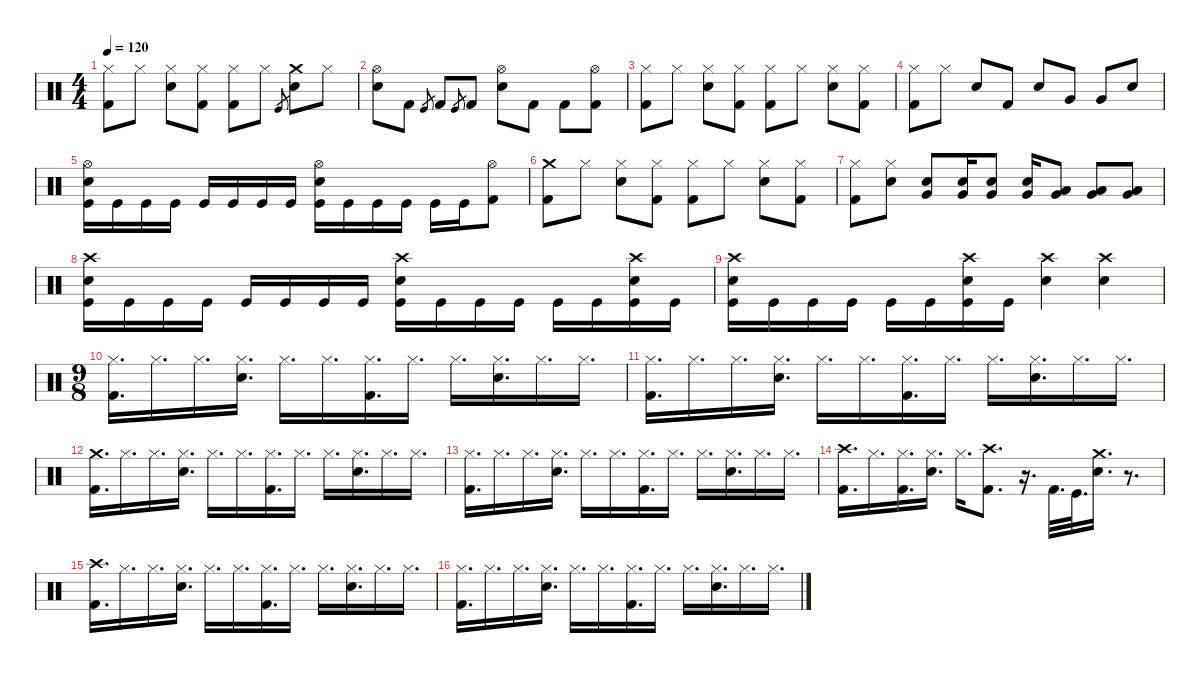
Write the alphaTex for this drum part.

\defaultSystemsLayout 4
\hideDynamics
\bracketExtendMode nobrackets
\singleTrackTrackNamePolicy hidden
\multiTrackTrackNamePolicy hidden
\otherSystemsTrackNameOrientation horizontal
\track ("Ulrich" "drm.") {instrument percussion}
\staff {score}
\articulation defaults
\ts (4 4)
\tempo 120
\clef neutral
\ks c
("Hi-Hat (closed)" "Kick (hit) 2").8{dy f beam Down} "Hi-Hat (closed)".8{beam Down} ("Hi-Hat (closed)" "Snare (hit) 2").8{beam Down} ("Hi-Hat (closed)" "Kick (hit) 2").8{beam Down} ("Hi-Hat (closed)" "Kick (hit) 2").8{beam Down} "Hi-Hat (closed)".8{beam Down} "Kick (hit)".8{gr dy ff beam Up} ("Crash medium (hit)" "Snare (hit) 2").8{dy f beam Down} "Hi-Hat (closed)".8{beam Down} |
("Hi-Hat (open)" "Snare (hit) 2").8{beam Down} "Kick (hit) 2".8{beam Down} "Kick (hit)".8{gr dy ff beam Up} "Kick (hit) 2".8{dy f beam Up} "Kick (hit)".8{gr dy ff beam Up} "Kick (hit) 2".8{dy f beam Up} ("Hi-Hat (open)" "Snare (hit) 2").8{beam Down} "Kick (hit) 2".8{beam Down} "Kick (hit) 2".8{beam Down} ("Hi-Hat (open)" "Kick (hit) 2").8{beam Down} |
("Hi-Hat (closed)" "Kick (hit) 2").8{beam Down} "Hi-Hat (closed)".8{beam Down} ("Hi-Hat (closed)" "Snare (hit) 2").8{beam Down} ("Hi-Hat (closed)" "Kick (hit) 2").8{beam Down} ("Hi-Hat (closed)" "Kick (hit) 2").8{beam Down} "Hi-Hat (closed)".8{beam Down} ("Hi-Hat (closed)" "Snare (hit) 2").8{beam Down} ("Hi-Hat (closed)" "Kick (hit) 2").8{beam Down} |
("Hi-Hat (closed)" "Kick (hit) 2").8{beam Down} "Hi-Hat (closed)".8{beam Down} "Snare (hit) 2".8{beam Up} "Kick (hit) 2".8{beam Up} "Snare (hit) 2".8{beam Up} "Very Low Tom (hit)".8{dy fff beam Up} "Very Low Tom (hit)".8{beam Up} "Snare (hit) 2".8{dy f beam Up} |
("Hi-Hat (open)" "Kick (hit)" "Snare (hit) 2").16{beam Down} "Kick (hit)".16{dy fff beam Down} "Kick (hit)".16{beam Down} "Kick (hit)".16{beam Down} "Kick (hit)".16{beam Up} "Kick (hit)".16{beam Up} "Kick (hit)".16{beam Up} "Kick (hit)".16{beam Up} ("Hi-Hat (open)" "Kick (hit)" "Snare (hit) 2").16{dy f beam Down} "Kick (hit)".16{dy fff beam Down} "Kick (hit)".16{beam Down} "Kick (hit)".16{beam Down} "Kick (hit)".16{beam Down} "Kick (hit)".16{beam Down} ("Hi-Hat (open)" "Kick (hit) 2").8{dy f beam Down} |
("Crash medium (hit)" "Kick (hit) 2").8{beam Down} "Hi-Hat (closed)".8{beam Down} ("Hi-Hat (closed)" "Snare (hit) 2").8{beam Down} ("Hi-Hat (closed)" "Kick (hit) 2").8{beam Down} ("Hi-Hat (closed)" "Kick (hit) 2").8{beam Down} "Hi-Hat (closed)".8{beam Down} ("Hi-Hat (closed)" "Snare (hit) 2").8{beam Down} ("Hi-Hat (closed)" "Kick (hit) 2").8{beam Down} |
("Hi-Hat (closed)" "Kick (hit) 2").8{beam Down} ("Hi-Hat (closed)" "Snare (hit) 2").8{beam Down} ("Snare (hit) 2" "Very Low Tom (hit)").8{beam Up} ("Snare (hit) 2" "Very Low Tom (hit)").16{beam Up} ("Snare (hit) 2" "Very Low Tom (hit)").8{beam Up} ("Snare (hit) 2" "Very Low Tom (hit)").16{beam Up} ("Low Tom (hit)" "Very Low Tom (hit)").8{dy fff beam Up} ("Low Tom (hit)" "Very Low Tom (hit)").8{beam Up} ("Low Tom (hit)" "Very Low Tom (hit)").8{beam Up} |
("Crash high (hit)" "Kick (hit)" "Snare (hit) 2").16{dy f beam Down} "Kick (hit)".16{dy fff beam Down} "Kick (hit)".16{beam Down} "Kick (hit)".16{beam Down} "Kick (hit)".16{beam Up} "Kick (hit)".16{beam Up} "Kick (hit)".16{beam Up} "Kick (hit)".16{beam Up} ("Crash high (hit)" "Kick (hit)" "Snare (hit) 2").16{dy f beam Down} "Kick (hit)".16{dy fff beam Down} "Kick (hit)".16{beam Down} "Kick (hit)".16{beam Down} "Kick (hit)".16{beam Down} "Kick (hit)".16{beam Down} ("Crash high (hit)" "Kick (hit)" "Snare (hit) 2").16{dy f beam Down} "Kick (hit)".16{dy fff beam Down} |
("Crash high (hit)" "Kick (hit)" "Snare (hit) 2").16{dy f beam Down} "Kick (hit)".16{dy fff beam Down} "Kick (hit)".16{beam Down} "Kick (hit)".16{beam Down} "Kick (hit)".16{beam Down} "Kick (hit)".16{beam Down} ("Crash high (hit)" "Kick (hit)" "Snare (hit) 2").16{dy f beam Down} "Kick (hit)".16{dy fff beam Down} ("Crash high (hit)" "Snare (hit) 2").4{dy f beam Down} ("Crash high (hit)" "Snare (hit) 2").4{beam Down} |
\ts (9 8)
("Hi-Hat (closed)" "Kick (hit) 2").16{d beam Down} "Hi-Hat (closed)".16{d beam Down} "Hi-Hat (closed)".16{d beam Down} ("Hi-Hat (closed)" "Snare (hit) 2").16{d beam Down} "Hi-Hat (closed)".16{d beam Down} "Hi-Hat (closed)".16{d beam Down} ("Hi-Hat (closed)" "Kick (hit) 2").16{d beam Down} "Hi-Hat (closed)".16{d beam Down} "Hi-Hat (closed)".16{d beam Down} ("Hi-Hat (closed)" "Snare (hit) 2").16{d beam Down} "Hi-Hat (closed)".16{d beam Down} "Hi-Hat (closed)".16{d beam Down} |
("Hi-Hat (closed)" "Kick (hit) 2").16{d beam Down} "Hi-Hat (closed)".16{d beam Down} "Hi-Hat (closed)".16{d beam Down} ("Hi-Hat (closed)" "Snare (hit) 2").16{d beam Down} "Hi-Hat (closed)".16{d beam Down} "Hi-Hat (closed)".16{d beam Down} ("Hi-Hat (closed)" "Kick (hit) 2").16{d beam Down} "Hi-Hat (closed)".16{d beam Down} "Hi-Hat (closed)".16{d beam Down} ("Hi-Hat (closed)" "Snare (hit) 2").16{d beam Down} "Hi-Hat (closed)".16{d beam Down} "Hi-Hat (closed)".16{d beam Down} |
("Crash medium (hit)" "Kick (hit) 2").16{d beam Down} "Hi-Hat (closed)".16{d beam Down} "Hi-Hat (closed)".16{d beam Down} ("Hi-Hat (closed)" "Snare (hit) 2").16{d beam Down} "Hi-Hat (closed)".16{d beam Down} "Hi-Hat (closed)".16{d beam Down} ("Hi-Hat (closed)" "Kick (hit) 2").16{d beam Down} "Hi-Hat (closed)".16{d beam Down} "Hi-Hat (closed)".16{d beam Down} ("Hi-Hat (closed)" "Snare (hit) 2").16{d beam Down} "Hi-Hat (closed)".16{d beam Down} "Hi-Hat (closed)".16{d beam Down} |
("Hi-Hat (closed)" "Kick (hit) 2").16{d beam Down} "Hi-Hat (closed)".16{d beam Down} "Hi-Hat (closed)".16{d beam Down} ("Hi-Hat (closed)" "Snare (hit) 2").16{d beam Down} "Hi-Hat (closed)".16{d beam Down} "Hi-Hat (closed)".16{d beam Down} ("Hi-Hat (closed)" "Kick (hit) 2").16{d beam Down} "Hi-Hat (closed)".16{d beam Down} "Hi-Hat (closed)".16{d beam Down} ("Hi-Hat (closed)" "Snare (hit) 2").16{d beam Down} "Hi-Hat (closed)".16{d beam Down} "Hi-Hat (closed)".16{d beam Down} |
("Crash high (hit)" "Kick (hit) 2").16{d beam Down} "Hi-Hat (closed)".16{d beam Down} ("Hi-Hat (closed)" "Kick (hit) 2").16{d beam Down} ("Hi-Hat (closed)" "Snare (hit) 2").16{d beam Down} "Hi-Hat (closed)".16{d beam Down} ("Crash high (hit)" "Kick (hit) 2").8{d beam Down} r.16{d beam Down} "Kick (hit) 2".32{d beam Down} "Kick (hit)".32{d beam Down} ("Crash medium (hit)" "Snare (hit) 2").16{d beam Down} r.8{d beam Down} |
("Crash high (hit)" "Kick (hit) 2").16{d beam Down} "Hi-Hat (closed)".16{d beam Down} "Hi-Hat (closed)".16{d beam Down} ("Hi-Hat (closed)" "Snare (hit) 2").16{d beam Down} "Hi-Hat (closed)".16{d beam Down} "Hi-Hat (closed)".16{d beam Down} ("Hi-Hat (closed)" "Kick (hit) 2").16{d beam Down} "Hi-Hat (closed)".16{d beam Down} "Hi-Hat (closed)".16{d beam Down} ("Hi-Hat (closed)" "Snare (hit) 2").16{d beam Down} "Hi-Hat (closed)".16{d beam Down} "Hi-Hat (closed)".16{d beam Down} |
("Hi-Hat (closed)" "Kick (hit) 2").16{d beam Down} "Hi-Hat (closed)".16{d beam Down} "Hi-Hat (closed)".16{d beam Down} ("Hi-Hat (closed)" "Snare (hit) 2").16{d beam Down} "Hi-Hat (closed)".16{d beam Down} "Hi-Hat (closed)".16{d beam Down} ("Hi-Hat (closed)" "Kick (hit) 2").16{d beam Down} "Hi-Hat (closed)".16{d beam Down} "Hi-Hat (closed)".16{d beam Down} ("Hi-Hat (closed)" "Snare (hit) 2").16{d beam Down} "Hi-Hat (closed)".16{d beam Down} "Hi-Hat (closed)".16{d beam Down}
